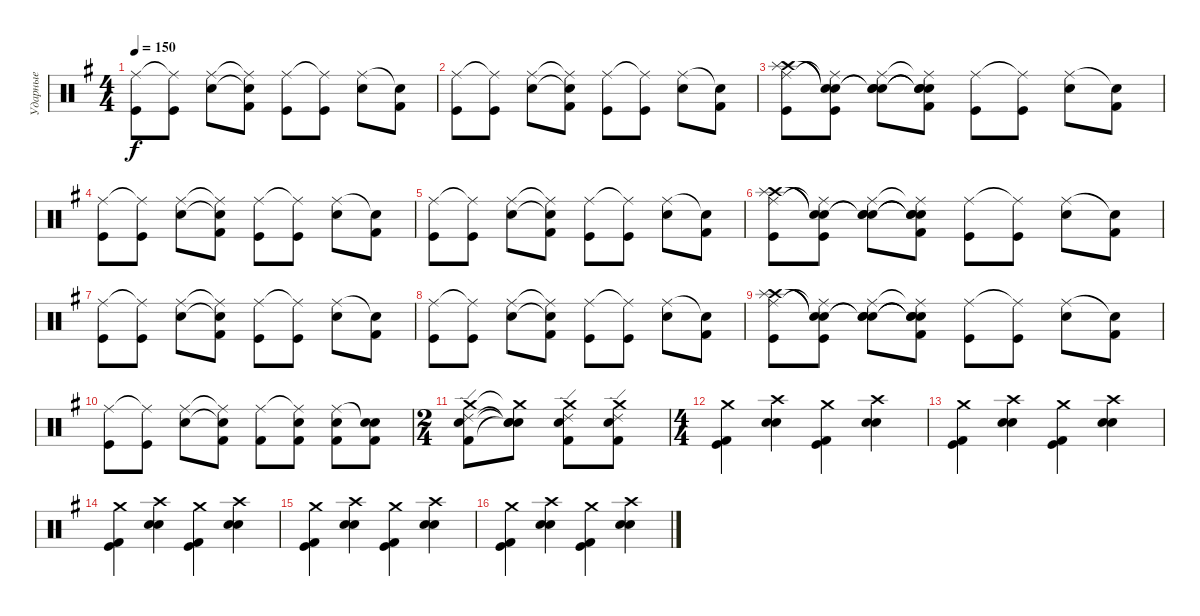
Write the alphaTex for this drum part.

\track ("Ударные" "Ударные") {instrument percussion}
\staff {score}
\articulation defaults
\ts (4 4)
\tempo 150
\clef neutral
\ks g
("Ride (middle)" "Kick (hit)").8{dy f} ("Ride (middle)"{t} "Kick (hit)").8 ("Ride (middle)" "Snare (hit) 2").8 ("Ride (middle)"{t} "Snare (hit)"{t} "Kick (hit) 2").8 ("Ride (middle)" "Kick (hit)").8 ("Ride (middle)"{t} "Kick (hit)").8 ("Ride (middle)" "Snare (hit) 2").8 ("Snare (hit)"{t} "Kick (hit) 2").8 |
("Ride (middle)" "Kick (hit)").8 ("Ride (middle)"{t} "Kick (hit)").8 ("Ride (middle)" "Snare (hit) 2").8 ("Ride (middle)"{t} "Snare (hit)"{t} "Kick (hit) 2").8 ("Ride (middle)" "Kick (hit)").8 ("Ride (middle)"{t} "Kick (hit)").8 ("Ride (middle)" "Snare (hit) 2").8 ("Snare (hit)"{t} "Kick (hit) 2").8 |
("Ride (middle)" "Crash high (hit)" "Splash (hit)" "Kick (hit)").8 ("Ride (middle)"{t} "Snare (hit)"{t} "Snare (hit)"{t} "Kick (hit)").8 ("Ride (middle)" "Snare (hit)"{t} "Snare (hit)"{t} "Snare (hit) 2").8 ("Ride (middle)"{t} "Snare (hit)"{t} "Snare (hit)"{t} "Snare (hit)"{t} "Kick (hit) 2").8 ("Ride (middle)" "Kick (hit)").8 ("Ride (middle)"{t} "Kick (hit)").8 ("Ride (middle)" "Snare (hit) 2").8 ("Snare (hit)"{t} "Kick (hit) 2").8 |
("Ride (middle)" "Kick (hit)").8 ("Ride (middle)"{t} "Kick (hit)").8 ("Ride (middle)" "Snare (hit) 2").8 ("Ride (middle)"{t} "Snare (hit)"{t} "Kick (hit) 2").8 ("Ride (middle)" "Kick (hit)").8 ("Ride (middle)"{t} "Kick (hit)").8 ("Ride (middle)" "Snare (hit) 2").8 ("Snare (hit)"{t} "Kick (hit) 2").8 |
("Ride (middle)" "Kick (hit)").8 ("Ride (middle)"{t} "Kick (hit)").8 ("Ride (middle)" "Snare (hit) 2").8 ("Ride (middle)"{t} "Snare (hit)"{t} "Kick (hit) 2").8 ("Ride (middle)" "Kick (hit)").8 ("Ride (middle)"{t} "Kick (hit)").8 ("Ride (middle)" "Snare (hit) 2").8 ("Snare (hit)"{t} "Kick (hit) 2").8 |
("Ride (middle)" "Crash high (hit)" "Splash (hit)" "Kick (hit)").8 ("Ride (middle)"{t} "Snare (hit)"{t} "Snare (hit)"{t} "Kick (hit)").8 ("Ride (middle)" "Snare (hit)"{t} "Snare (hit)"{t} "Snare (hit) 2").8 ("Ride (middle)"{t} "Snare (hit)"{t} "Snare (hit)"{t} "Snare (hit)"{t} "Kick (hit) 2").8 ("Ride (middle)" "Kick (hit)").8 ("Ride (middle)"{t} "Kick (hit)").8 ("Ride (middle)" "Snare (hit) 2").8 ("Snare (hit)"{t} "Kick (hit) 2").8 |
("Ride (middle)" "Kick (hit)").8 ("Ride (middle)"{t} "Kick (hit)").8 ("Ride (middle)" "Snare (hit) 2").8 ("Ride (middle)"{t} "Snare (hit)"{t} "Kick (hit) 2").8 ("Ride (middle)" "Kick (hit)").8 ("Ride (middle)"{t} "Kick (hit)").8 ("Ride (middle)" "Snare (hit) 2").8 ("Snare (hit)"{t} "Kick (hit) 2").8 |
("Ride (middle)" "Kick (hit)").8 ("Ride (middle)"{t} "Kick (hit)").8 ("Ride (middle)" "Snare (hit) 2").8 ("Ride (middle)"{t} "Snare (hit)"{t} "Kick (hit) 2").8 ("Ride (middle)" "Kick (hit)").8 ("Ride (middle)"{t} "Kick (hit)").8 ("Ride (middle)" "Snare (hit) 2").8 ("Snare (hit)"{t} "Kick (hit) 2").8 |
("Ride (middle)" "Crash high (hit)" "Splash (hit)" "Kick (hit)").8 ("Ride (middle)"{t} "Snare (hit)"{t} "Snare (hit)"{t} "Kick (hit)").8 ("Ride (middle)" "Snare (hit)"{t} "Snare (hit)"{t} "Snare (hit) 2").8 ("Ride (middle)"{t} "Snare (hit)"{t} "Snare (hit)"{t} "Snare (hit)"{t} "Kick (hit) 2").8 ("Ride (middle)" "Kick (hit)").8 ("Ride (middle)"{t} "Kick (hit)").8 ("Ride (middle)" "Snare (hit) 2").8 ("Snare (hit)"{t} "Kick (hit) 2").8 |
("Ride (middle)" "Kick (hit)").8 ("Ride (middle)"{t} "Kick (hit)").8 ("Ride (middle)" "Snare (hit) 2").8 ("Ride (middle)"{t} "Snare (hit)"{t} "Kick (hit) 2").8 ("Ride (middle)" "Kick (hit) 2").8 ("Ride (middle)"{t} "Snare (hit) 2" "Kick (hit) 2").8 ("Ride (middle)" "Snare (hit) 2" "Kick (hit) 2").8 ("Snare (hit)"{t} "Snare (hit) 2" "Kick (hit) 2").8 |
\ts (2 4)
("Crash medium (hit)" "Ride (edge) 2" "Snare (hit) 2" "Kick (hit) 2").8 ("Crash medium (hit)"{t} "Snare (hit)"{t} "Snare (hit)"{t} "Snare (hit)"{t}).8 ("Crash medium (hit)" "Ride (edge) 2" "Snare (hit) 2" "Kick (hit) 2").8 ("Crash medium (hit)" "Ride (edge) 2" "Snare (hit) 2" "Kick (hit) 2").8 |
\ts (4 4)
("Crash medium (hit)" "Kick (hit) 2" "Kick (hit)").4 ("Crash high (hit)" "Snare (hit) 2" "Snare (hit) 2").4 ("Crash medium (hit)" "Kick (hit) 2" "Kick (hit)").4 ("Crash high (hit)" "Snare (hit) 2" "Snare (hit) 2").4 |
("Crash medium (hit)" "Kick (hit) 2" "Kick (hit)").4 ("Crash high (hit)" "Snare (hit) 2" "Snare (hit) 2").4 ("Crash medium (hit)" "Kick (hit) 2" "Kick (hit)").4 ("Crash high (hit)" "Snare (hit) 2" "Snare (hit) 2").4 |
("Crash medium (hit)" "Kick (hit) 2" "Kick (hit)").4 ("Crash high (hit)" "Snare (hit) 2" "Snare (hit) 2").4 ("Crash medium (hit)" "Kick (hit) 2" "Kick (hit)").4 ("Crash high (hit)" "Snare (hit) 2" "Snare (hit) 2").4 |
("Crash medium (hit)" "Kick (hit) 2" "Kick (hit)").4 ("Crash high (hit)" "Snare (hit) 2" "Snare (hit) 2").4 ("Crash medium (hit)" "Kick (hit) 2" "Kick (hit)").4 ("Crash high (hit)" "Snare (hit) 2" "Snare (hit) 2").4 |
("Crash medium (hit)" "Kick (hit) 2" "Kick (hit)").4 ("Crash high (hit)" "Snare (hit) 2" "Snare (hit) 2").4 ("Crash medium (hit)" "Kick (hit) 2" "Kick (hit)").4 ("Crash high (hit)" "Snare (hit) 2" "Snare (hit) 2").4
